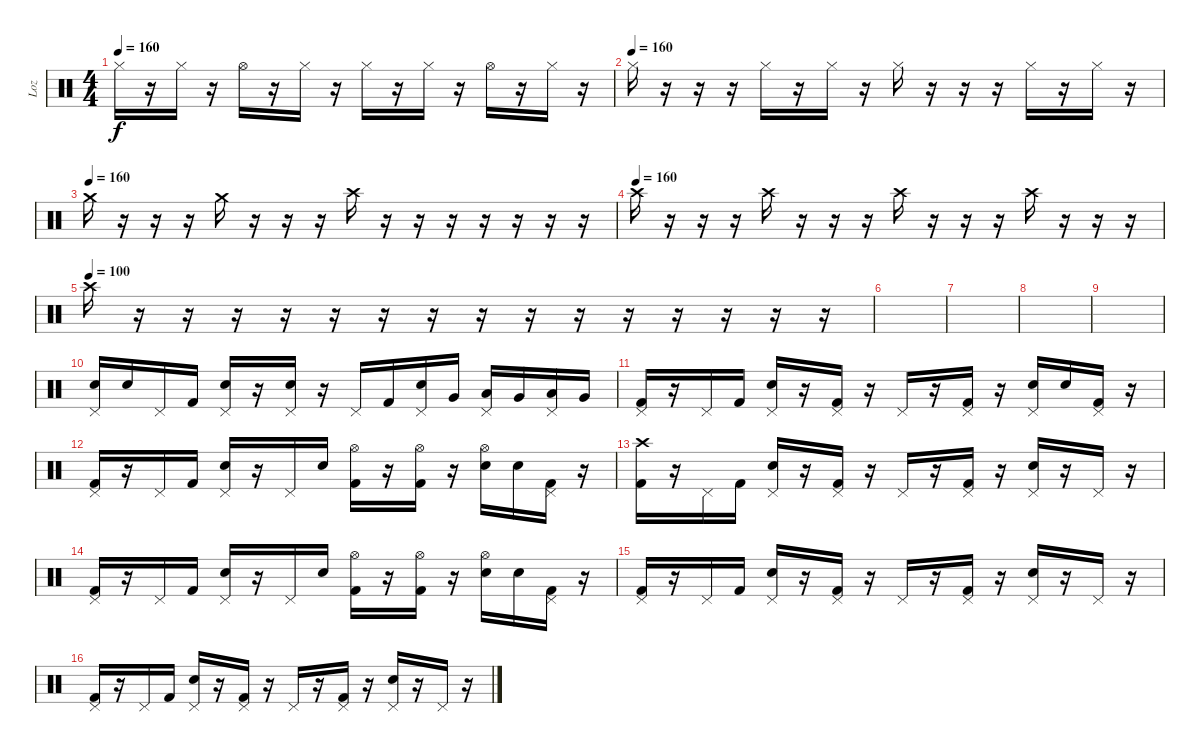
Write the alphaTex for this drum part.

\track ("Loz" "Loz") {instrument percussion}
\staff {score}
\articulation defaults
\ts (4 4)
\tempo 160
\clef neutral
\ks c "Hi-Hat (closed)".16{dy f}
r.16 "Hi-Hat (closed)".16 r.16 "Hi-Hat (open)".16 r.16 "Hi-Hat (closed)".16 r.16 "Hi-Hat (closed)".16 r.16 "Hi-Hat (closed)".16 r.16 "Hi-Hat (open)".16 r.16 "Hi-Hat (closed)".16 r.16 |
\tempo (160)
"Hi-Hat (closed)".16 r.16 r.16 r.16 "Hi-Hat (closed)".16 r.16 "Hi-Hat (closed)".16 r.16 "Hi-Hat (closed)".16 r.16 r.16 r.16 "Hi-Hat (closed)".16 r.16 "Hi-Hat (closed)".16 r.16 |
\tempo (160)
"Crash medium (hit)".16 r.16 r.16 r.16 "Crash medium (hit)".16 r.16 r.16 r.16 "Crash high (hit)".16 r.16 r.16 r.16 r.16 r.16 r.16 r.16 |
\tempo (160)
"Crash high (hit)".16 r.16 r.16 r.16 "Crash high (hit)".16 r.16 r.16 r.16 "Crash high (hit)".16 r.16 r.16 r.16 "Crash high (hit)".16 r.16 r.16 r.16 |
\tempo (100)
"Crash high (hit)".16 r.16 r.16 r.16 r.16 r.16 r.16 r.16 r.16 r.16 r.16 r.16 r.16 r.16 r.16 r.16 |
|
|
|
|
("Pedal Hi-Hat (hit)" "Electric Snare (hit)").16 "Electric Snare (hit)".16 "Pedal Hi-Hat (hit)".16 "Kick (hit) 2".16 ("Pedal Hi-Hat (hit)" "Electric Snare (hit)").16 r.16 ("Pedal Hi-Hat (hit)" "Electric Snare (hit)").16 r.16 "Pedal Hi-Hat (hit)".16 "Kick (hit) 2".16 ("Pedal Hi-Hat (hit)" "Electric Snare (hit)").16 "Very Low Tom (hit)".16 ("Pedal Hi-Hat (hit)" "Low Floor Tom (hit)").16 "Very Low Tom (hit)".16 ("Pedal Hi-Hat (hit)" "Low Floor Tom (hit)").16 "Very Low Tom (hit)".16 |
("Pedal Hi-Hat (hit)" "Kick (hit) 2").16 r.16 "Pedal Hi-Hat (hit)".16 "Kick (hit) 2".16 ("Pedal Hi-Hat (hit)" "Electric Snare (hit)").16 r.16 ("Pedal Hi-Hat (hit)" "Kick (hit) 2").16 r.16 "Pedal Hi-Hat (hit)".16 r.16 ("Pedal Hi-Hat (hit)" "Kick (hit) 2").16 r.16 ("Pedal Hi-Hat (hit)" "Electric Snare (hit)").16 "Electric Snare (hit)".16 ("Pedal Hi-Hat (hit)" "Kick (hit) 2").16 r.16 |
("Pedal Hi-Hat (hit)" "Kick (hit) 2").16 r.16 "Pedal Hi-Hat (hit)".16 "Kick (hit) 2".16 ("Pedal Hi-Hat (hit)" "Electric Snare (hit)").16 r.16 "Pedal Hi-Hat (hit)".16 "Electric Snare (hit)".16 ("Hi-Hat (open)" "Kick (hit) 2").16 r.16 ("Hi-Hat (open)" "Kick (hit) 2").16 r.16 ("Hi-Hat (open)" "Electric Snare (hit)").16 "Electric Snare (hit)".16 ("Pedal Hi-Hat (hit)" "Kick (hit) 2").16 r.16 |
("Crash high (hit)" "Kick (hit) 2").16 r.16 "Pedal Hi-Hat (hit)".16 "Kick (hit) 2".16 ("Pedal Hi-Hat (hit)" "Electric Snare (hit)").16 r.16 ("Pedal Hi-Hat (hit)" "Kick (hit) 2").16 r.16 "Pedal Hi-Hat (hit)".16 r.16 ("Pedal Hi-Hat (hit)" "Kick (hit) 2").16 r.16 ("Pedal Hi-Hat (hit)" "Electric Snare (hit)").16 r.16 "Pedal Hi-Hat (hit)".16 r.16 |
("Pedal Hi-Hat (hit)" "Kick (hit) 2").16 r.16 "Pedal Hi-Hat (hit)".16 "Kick (hit) 2".16 ("Pedal Hi-Hat (hit)" "Electric Snare (hit)").16 r.16 "Pedal Hi-Hat (hit)".16 "Electric Snare (hit)".16 ("Hi-Hat (open)" "Kick (hit) 2").16 r.16 ("Hi-Hat (open)" "Kick (hit) 2").16 r.16 ("Hi-Hat (open)" "Electric Snare (hit)").16 "Electric Snare (hit)".16 ("Pedal Hi-Hat (hit)" "Kick (hit) 2").16 r.16 |
("Pedal Hi-Hat (hit)" "Kick (hit) 2").16 r.16 "Pedal Hi-Hat (hit)".16 "Kick (hit) 2".16 ("Pedal Hi-Hat (hit)" "Electric Snare (hit)").16 r.16 ("Pedal Hi-Hat (hit)" "Kick (hit) 2").16 r.16 "Pedal Hi-Hat (hit)".16 r.16 ("Pedal Hi-Hat (hit)" "Kick (hit) 2").16 r.16 ("Pedal Hi-Hat (hit)" "Electric Snare (hit)").16 r.16 "Pedal Hi-Hat (hit)".16 r.16 |
("Pedal Hi-Hat (hit)" "Kick (hit) 2").16 r.16 "Pedal Hi-Hat (hit)".16 "Kick (hit) 2".16 ("Pedal Hi-Hat (hit)" "Electric Snare (hit)").16 r.16 ("Pedal Hi-Hat (hit)" "Kick (hit) 2").16 r.16 "Pedal Hi-Hat (hit)".16 r.16 ("Pedal Hi-Hat (hit)" "Kick (hit) 2").16 r.16 ("Pedal Hi-Hat (hit)" "Electric Snare (hit)").16 r.16 "Pedal Hi-Hat (hit)".16 r.16
